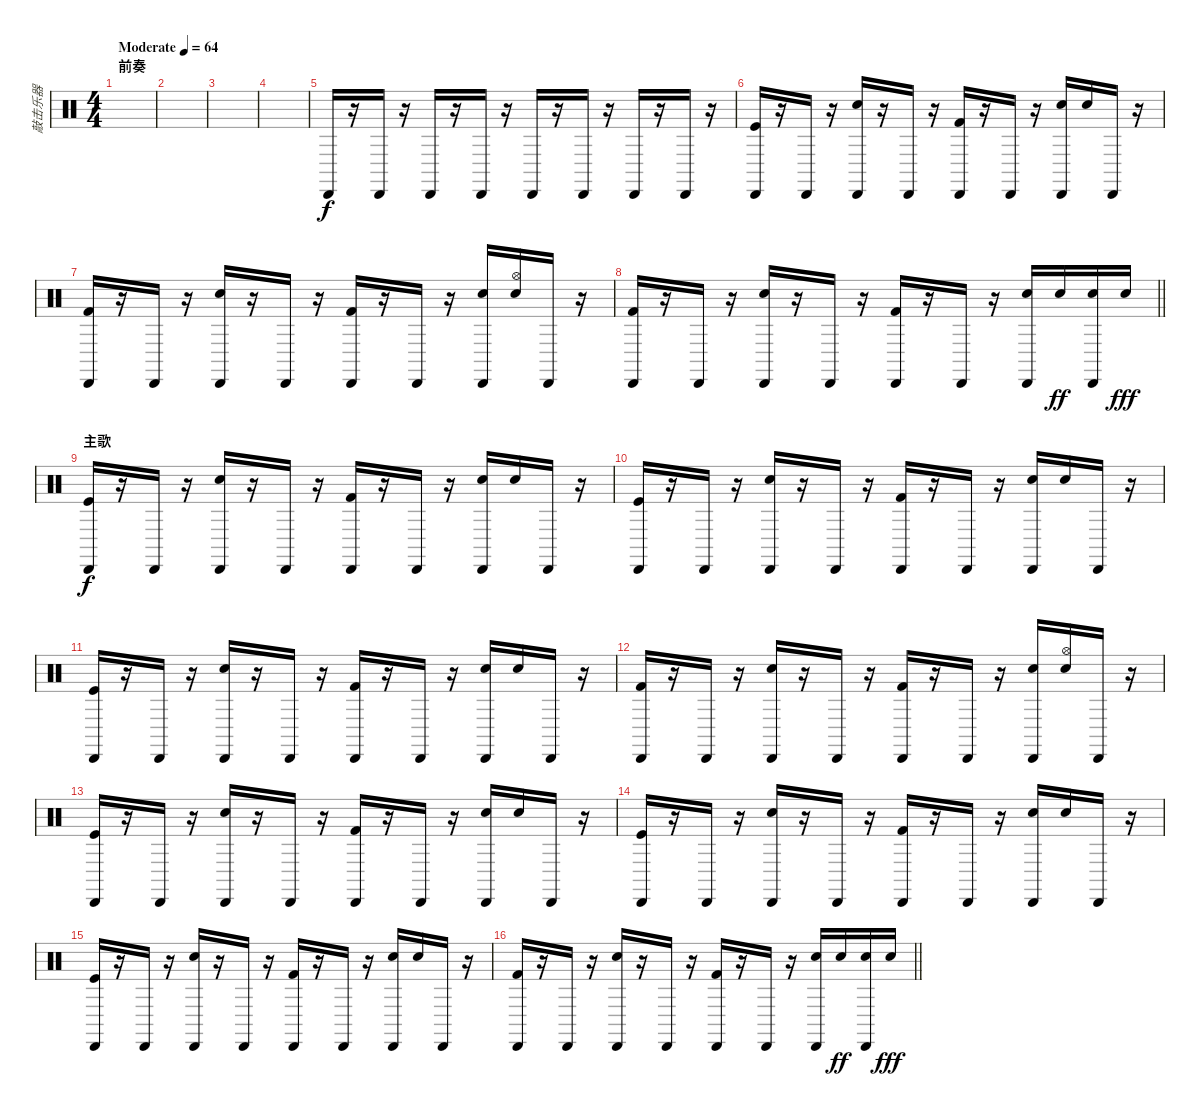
\track ("敲击乐器" "敲击乐器") {instrument percussion}
\staff {score}
\articulation defaults
\ts (4 4)
\section ("" "前奏")
\tempo (64 "Moderate")
\clef neutral
\ks c
|
|
|
|
"Cabasa (hit)".16 r.16 "Cabasa (hit)".16 r.16 "Cabasa (hit)".16 r.16 "Cabasa (hit)".16 r.16 "Cabasa (hit)".16 r.16 "Cabasa (hit)".16 r.16 "Cabasa (hit)".16 r.16 "Cabasa (hit)".16 r.16 |
("Cabasa (hit)" "Kick (hit)").16 r.16 "Cabasa (hit)".16 r.16 ("Cabasa (hit)" "Snare (hit) 2").16 r.16 "Cabasa (hit)".16 r.16 ("Cabasa (hit)" "Kick (hit) 2").16 r.16 "Cabasa (hit)".16 r.16 ("Cabasa (hit)" "Snare (hit) 2").16 "Snare (hit) 2".16 "Cabasa (hit)".16 r.16 |
("Cabasa (hit)" "Kick (hit) 2").16 r.16 "Cabasa (hit)".16 r.16 ("Cabasa (hit)" "Snare (hit) 2").16 r.16 "Cabasa (hit)".16 r.16 ("Cabasa (hit)" "Kick (hit) 2").16 r.16 "Cabasa (hit)".16 r.16 ("Cabasa (hit)" "Electric Snare (hit)").16 ("Snare (hit) 2" "Hi-Hat (open)").16 "Cabasa (hit)".16 r.16 |
\barLineRight lightlight
("Cabasa (hit)" "Kick (hit) 2").16 r.16 "Cabasa (hit)".16 r.16 ("Cabasa (hit)" "Snare (hit) 2").16 r.16 "Cabasa (hit)".16 r.16 ("Cabasa (hit)" "Kick (hit) 2").16 r.16 "Cabasa (hit)".16 r.16 ("Cabasa (hit)" "Snare (hit) 2").16 "Snare (hit) 2".16{dy ff} ("Cabasa (hit)" "Snare (hit) 2").16 "Snare (hit) 2".16{dy fff} |
\section ("" "主歌")
("Cabasa (hit)" "Kick (hit)").16{dy f} r.16 "Cabasa (hit)".16 r.16 ("Cabasa (hit)" "Snare (hit) 2").16 r.16 "Cabasa (hit)".16 r.16 ("Cabasa (hit)" "Kick (hit) 2").16 r.16 "Cabasa (hit)".16 r.16 ("Cabasa (hit)" "Snare (hit) 2").16 "Snare (hit) 2".16 "Cabasa (hit)".16 r.16 |
("Cabasa (hit)" "Kick (hit)").16 r.16 "Cabasa (hit)".16 r.16 ("Cabasa (hit)" "Snare (hit) 2").16 r.16 "Cabasa (hit)".16 r.16 ("Cabasa (hit)" "Kick (hit) 2").16 r.16 "Cabasa (hit)".16 r.16 ("Cabasa (hit)" "Snare (hit) 2").16 "Snare (hit) 2".16 "Cabasa (hit)".16 r.16 |
("Cabasa (hit)" "Kick (hit)").16 r.16 "Cabasa (hit)".16 r.16 ("Cabasa (hit)" "Snare (hit) 2").16 r.16 "Cabasa (hit)".16 r.16 ("Cabasa (hit)" "Kick (hit) 2").16 r.16 "Cabasa (hit)".16 r.16 ("Cabasa (hit)" "Snare (hit) 2").16 "Snare (hit) 2".16 "Cabasa (hit)".16 r.16 |
("Cabasa (hit)" "Kick (hit) 2").16 r.16 "Cabasa (hit)".16 r.16 ("Cabasa (hit)" "Snare (hit) 2").16 r.16 "Cabasa (hit)".16 r.16 ("Cabasa (hit)" "Kick (hit) 2").16 r.16 "Cabasa (hit)".16 r.16 ("Cabasa (hit)" "Electric Snare (hit)").16 ("Snare (hit) 2" "Hi-Hat (open)").16 "Cabasa (hit)".16 r.16 |
("Cabasa (hit)" "Kick (hit)").16 r.16 "Cabasa (hit)".16 r.16 ("Cabasa (hit)" "Snare (hit) 2").16 r.16 "Cabasa (hit)".16 r.16 ("Cabasa (hit)" "Kick (hit) 2").16 r.16 "Cabasa (hit)".16 r.16 ("Cabasa (hit)" "Snare (hit) 2").16 "Snare (hit) 2".16 "Cabasa (hit)".16 r.16 |
("Cabasa (hit)" "Kick (hit)").16 r.16 "Cabasa (hit)".16 r.16 ("Cabasa (hit)" "Snare (hit) 2").16 r.16 "Cabasa (hit)".16 r.16 ("Cabasa (hit)" "Kick (hit) 2").16 r.16 "Cabasa (hit)".16 r.16 ("Cabasa (hit)" "Snare (hit) 2").16 "Snare (hit) 2".16 "Cabasa (hit)".16 r.16 |
("Cabasa (hit)" "Kick (hit)").16 r.16 "Cabasa (hit)".16 r.16 ("Cabasa (hit)" "Snare (hit) 2").16 r.16 "Cabasa (hit)".16 r.16 ("Cabasa (hit)" "Kick (hit) 2").16 r.16 "Cabasa (hit)".16 r.16 ("Cabasa (hit)" "Snare (hit) 2").16 "Snare (hit) 2".16 "Cabasa (hit)".16 r.16 |
\barLineRight lightlight
("Cabasa (hit)" "Kick (hit) 2").16 r.16 "Cabasa (hit)".16 r.16 ("Cabasa (hit)" "Snare (hit) 2").16 r.16 "Cabasa (hit)".16 r.16 ("Cabasa (hit)" "Kick (hit) 2").16 r.16 "Cabasa (hit)".16 r.16 ("Cabasa (hit)" "Snare (hit) 2").16 "Snare (hit) 2".16{dy ff} ("Cabasa (hit)" "Snare (hit) 2").16 "Snare (hit) 2".16{dy fff}
